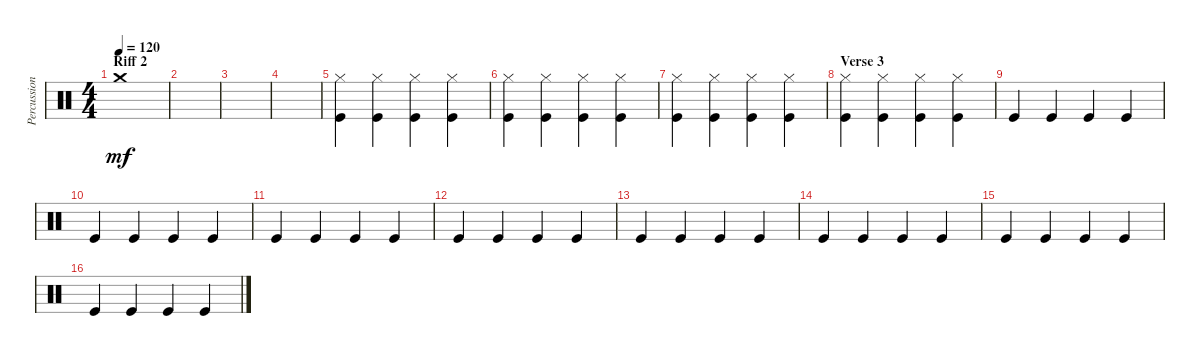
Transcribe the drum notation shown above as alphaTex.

\track ("Percussion" "Percussion") {instrument percussion}
\staff {score}
\articulation defaults
\ts (4 4)
\section ("" "Riff 2")
\tempo 120
\clef neutral
\ks c "Crash medium (hit)".1{dy mf}
|
|
|
|
("Kick (hit)" "Hi-Hat (closed)").4 ("Kick (hit)" "Hi-Hat (closed)").4 ("Kick (hit)" "Hi-Hat (closed)").4 ("Kick (hit)" "Hi-Hat (closed)").4 |
("Kick (hit)" "Hi-Hat (closed)").4 ("Kick (hit)" "Hi-Hat (closed)").4 ("Kick (hit)" "Hi-Hat (closed)").4 ("Kick (hit)" "Hi-Hat (closed)").4 |
("Kick (hit)" "Hi-Hat (closed)").4 ("Kick (hit)" "Hi-Hat (closed)").4 ("Kick (hit)" "Hi-Hat (closed)").4 ("Kick (hit)" "Hi-Hat (closed)").4 |
\section ("" "Verse 3")
("Kick (hit)" "Hi-Hat (closed)").4 ("Kick (hit)" "Hi-Hat (closed)").4 ("Kick (hit)" "Hi-Hat (closed)").4 ("Kick (hit)" "Hi-Hat (closed)").4 |
"Kick (hit)".4 "Kick (hit)".4 "Kick (hit)".4 "Kick (hit)".4 |
"Kick (hit)".4 "Kick (hit)".4 "Kick (hit)".4 "Kick (hit)".4 |
"Kick (hit)".4 "Kick (hit)".4 "Kick (hit)".4 "Kick (hit)".4 |
"Kick (hit)".4 "Kick (hit)".4 "Kick (hit)".4 "Kick (hit)".4 |
"Kick (hit)".4 "Kick (hit)".4 "Kick (hit)".4 "Kick (hit)".4 |
"Kick (hit)".4 "Kick (hit)".4 "Kick (hit)".4 "Kick (hit)".4 |
"Kick (hit)".4 "Kick (hit)".4 "Kick (hit)".4 "Kick (hit)".4 |
"Kick (hit)".4 "Kick (hit)".4 "Kick (hit)".4 "Kick (hit)".4
